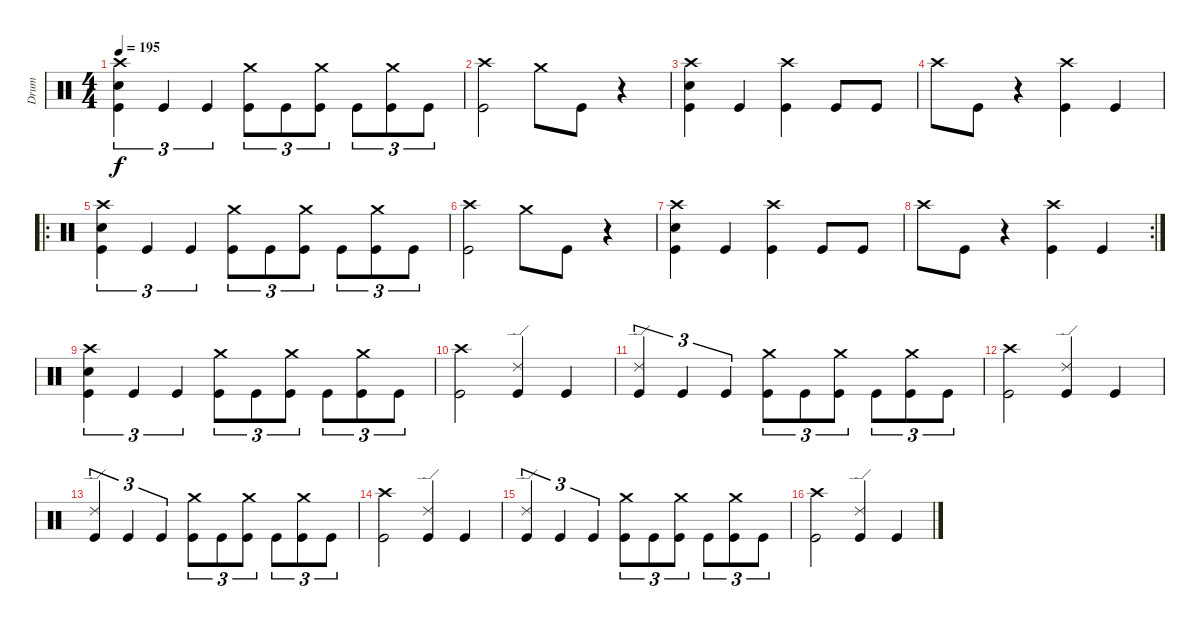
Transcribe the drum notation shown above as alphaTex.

\track ("Drum" "Drum") {instrument percussion}
\staff {score}
\articulation defaults
\ts (4 4)
\tempo 195
\clef neutral
\ks c
("Crash high (hit)" "Snare (hit) 2" "Kick (hit)").4{tu (3 2) dy f} "Kick (hit)".4{tu (3 2)} "Kick (hit)".4{tu (3 2)} ("Crash medium (hit)" "Kick (hit)").8{tu (3 2)} "Kick (hit)".8{tu (3 2)} ("Crash medium (hit)" "Kick (hit)").8{tu (3 2)} "Kick (hit)".8{tu (3 2)} ("Crash medium (hit)" "Kick (hit)").8{tu (3 2)} "Kick (hit)".8{tu (3 2)} |
("Crash high (hit)" "Kick (hit)").2 "Crash medium (hit)".8 "Kick (hit)".8 r.4 |
("Crash high (hit)" "Snare (hit) 2" "Kick (hit)").4 "Kick (hit)".4 ("Crash high (hit)" "Kick (hit)").4 "Kick (hit)".8 "Kick (hit)".8 |
"Crash high (hit)".8 "Kick (hit)".8 r.4 ("Crash high (hit)" "Kick (hit)").4 "Kick (hit)".4 |
\ro
("Crash high (hit)" "Snare (hit) 2" "Kick (hit)").4{tu (3 2)} "Kick (hit)".4{tu (3 2)} "Kick (hit)".4{tu (3 2)} ("Crash medium (hit)" "Kick (hit)").8{tu (3 2)} "Kick (hit)".8{tu (3 2)} ("Crash medium (hit)" "Kick (hit)").8{tu (3 2)} "Kick (hit)".8{tu (3 2)} ("Crash medium (hit)" "Kick (hit)").8{tu (3 2)} "Kick (hit)".8{tu (3 2)} |
("Crash high (hit)" "Kick (hit)").2 "Crash medium (hit)".8 "Kick (hit)".8 r.4 |
("Crash high (hit)" "Snare (hit) 2" "Kick (hit)").4 "Kick (hit)".4 ("Crash high (hit)" "Kick (hit)").4 "Kick (hit)".8 "Kick (hit)".8 |
\rc 2 "Crash high (hit)".8 "Kick (hit)".8
r.4 ("Crash high (hit)" "Kick (hit)").4 "Kick (hit)".4 |
("Crash high (hit)" "Snare (hit) 2" "Kick (hit)").4{tu (3 2)} "Kick (hit)".4{tu (3 2)} "Kick (hit)".4{tu (3 2)} ("Crash medium (hit)" "Kick (hit)").8{tu (3 2)} "Kick (hit)".8{tu (3 2)} ("Crash medium (hit)" "Kick (hit)").8{tu (3 2)} "Kick (hit)".8{tu (3 2)} ("Crash medium (hit)" "Kick (hit)").8{tu (3 2)} "Kick (hit)".8{tu (3 2)} |
("Crash high (hit)" "Kick (hit)").2 ("Ride (edge) 2" "Kick (hit)").4 "Kick (hit)".4 |
("Ride (edge) 2" "Kick (hit)").4{tu (3 2)} "Kick (hit)".4{tu (3 2)} "Kick (hit)".4{tu (3 2)} ("Crash medium (hit)" "Kick (hit)").8{tu (3 2)} "Kick (hit)".8{tu (3 2)} ("Crash medium (hit)" "Kick (hit)").8{tu (3 2)} "Kick (hit)".8{tu (3 2)} ("Crash medium (hit)" "Kick (hit)").8{tu (3 2)} "Kick (hit)".8{tu (3 2)} |
("Crash high (hit)" "Kick (hit)").2 ("Ride (edge) 2" "Kick (hit)").4 "Kick (hit)".4 |
("Ride (edge) 2" "Kick (hit)").4{tu (3 2)} "Kick (hit)".4{tu (3 2)} "Kick (hit)".4{tu (3 2)} ("Crash medium (hit)" "Kick (hit)").8{tu (3 2)} "Kick (hit)".8{tu (3 2)} ("Crash medium (hit)" "Kick (hit)").8{tu (3 2)} "Kick (hit)".8{tu (3 2)} ("Crash medium (hit)" "Kick (hit)").8{tu (3 2)} "Kick (hit)".8{tu (3 2)} |
("Crash high (hit)" "Kick (hit)").2 ("Ride (edge) 2" "Kick (hit)").4 "Kick (hit)".4 |
("Ride (edge) 2" "Kick (hit)").4{tu (3 2)} "Kick (hit)".4{tu (3 2)} "Kick (hit)".4{tu (3 2)} ("Crash medium (hit)" "Kick (hit)").8{tu (3 2)} "Kick (hit)".8{tu (3 2)} ("Crash medium (hit)" "Kick (hit)").8{tu (3 2)} "Kick (hit)".8{tu (3 2)} ("Crash medium (hit)" "Kick (hit)").8{tu (3 2)} "Kick (hit)".8{tu (3 2)} |
("Crash high (hit)" "Kick (hit)").2 ("Ride (edge) 2" "Kick (hit)").4 "Kick (hit)".4
